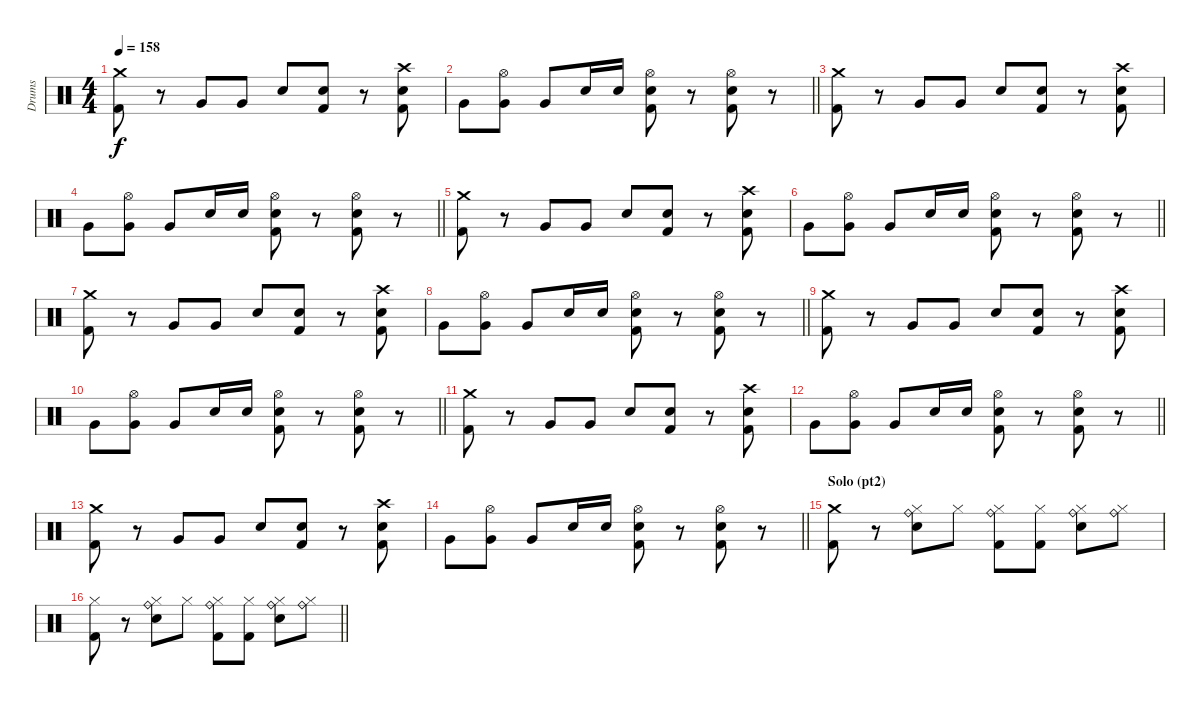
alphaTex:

\track ("Drums" "Drums") {instrument percussion}
\staff
\articulation defaults
\ts (4 4)
\tempo 158
\clef neutral
\ks c
("Crash medium (hit)" "Kick (hit) 2").8{dy f} r.8 "Very Low Tom (hit)".8 "Very Low Tom (hit)".8 "Electric Snare (hit)".8 ("Electric Snare (hit)" "Kick (hit) 2").8 r.8 ("Crash high (hit)" "Electric Snare (hit)" "Kick (hit) 2").8 |
\barLineRight lightlight "Very Low Tom (hit)".8
("Hi-Hat (open)" "Very Low Tom (hit)").8 "Very Low Tom (hit)".8 "Electric Snare (hit)".16 "Electric Snare (hit)".16 ("Hi-Hat (open)" "Electric Snare (hit)" "Kick (hit) 2").8 r.8 ("Hi-Hat (open)" "Electric Snare (hit)" "Kick (hit) 2").8 r.8 |
("Crash medium (hit)" "Kick (hit) 2").8 r.8 "Very Low Tom (hit)".8 "Very Low Tom (hit)".8 "Electric Snare (hit)".8 ("Electric Snare (hit)" "Kick (hit) 2").8 r.8 ("Crash high (hit)" "Electric Snare (hit)" "Kick (hit) 2").8 |
\barLineRight lightlight "Very Low Tom (hit)".8
("Hi-Hat (open)" "Very Low Tom (hit)").8 "Very Low Tom (hit)".8 "Electric Snare (hit)".16 "Electric Snare (hit)".16 ("Hi-Hat (open)" "Electric Snare (hit)" "Kick (hit) 2").8 r.8 ("Hi-Hat (open)" "Electric Snare (hit)" "Kick (hit) 2").8 r.8 |
("Crash medium (hit)" "Kick (hit) 2").8 r.8 "Very Low Tom (hit)".8 "Very Low Tom (hit)".8 "Electric Snare (hit)".8 ("Electric Snare (hit)" "Kick (hit) 2").8 r.8 ("Crash high (hit)" "Electric Snare (hit)" "Kick (hit) 2").8 |
\barLineRight lightlight "Very Low Tom (hit)".8
("Hi-Hat (open)" "Very Low Tom (hit)").8 "Very Low Tom (hit)".8 "Electric Snare (hit)".16 "Electric Snare (hit)".16 ("Hi-Hat (open)" "Electric Snare (hit)" "Kick (hit) 2").8 r.8 ("Hi-Hat (open)" "Electric Snare (hit)" "Kick (hit) 2").8 r.8 |
("Crash medium (hit)" "Kick (hit) 2").8 r.8 "Very Low Tom (hit)".8 "Very Low Tom (hit)".8 "Electric Snare (hit)".8 ("Electric Snare (hit)" "Kick (hit) 2").8 r.8 ("Crash high (hit)" "Electric Snare (hit)" "Kick (hit) 2").8 |
\barLineRight lightlight "Very Low Tom (hit)".8
("Hi-Hat (open)" "Very Low Tom (hit)").8 "Very Low Tom (hit)".8 "Electric Snare (hit)".16 "Electric Snare (hit)".16 ("Hi-Hat (open)" "Electric Snare (hit)" "Kick (hit) 2").8 r.8 ("Hi-Hat (open)" "Electric Snare (hit)" "Kick (hit) 2").8 r.8 |
("Crash medium (hit)" "Kick (hit) 2").8 r.8 "Very Low Tom (hit)".8 "Very Low Tom (hit)".8 "Electric Snare (hit)".8 ("Electric Snare (hit)" "Kick (hit) 2").8 r.8 ("Crash high (hit)" "Electric Snare (hit)" "Kick (hit) 2").8 |
\barLineRight lightlight "Very Low Tom (hit)".8
("Hi-Hat (open)" "Very Low Tom (hit)").8 "Very Low Tom (hit)".8 "Electric Snare (hit)".16 "Electric Snare (hit)".16 ("Hi-Hat (open)" "Electric Snare (hit)" "Kick (hit) 2").8 r.8 ("Hi-Hat (open)" "Electric Snare (hit)" "Kick (hit) 2").8 r.8 |
("Crash medium (hit)" "Kick (hit) 2").8 r.8 "Very Low Tom (hit)".8 "Very Low Tom (hit)".8 "Electric Snare (hit)".8 ("Electric Snare (hit)" "Kick (hit) 2").8 r.8 ("Crash high (hit)" "Electric Snare (hit)" "Kick (hit) 2").8 |
\barLineRight lightlight "Very Low Tom (hit)".8
("Hi-Hat (open)" "Very Low Tom (hit)").8 "Very Low Tom (hit)".8 "Electric Snare (hit)".16 "Electric Snare (hit)".16 ("Hi-Hat (open)" "Electric Snare (hit)" "Kick (hit) 2").8 r.8 ("Hi-Hat (open)" "Electric Snare (hit)" "Kick (hit) 2").8 r.8 |
("Crash medium (hit)" "Kick (hit) 2").8 r.8 "Very Low Tom (hit)".8 "Very Low Tom (hit)".8 "Electric Snare (hit)".8 ("Electric Snare (hit)" "Kick (hit) 2").8 r.8 ("Crash high (hit)" "Electric Snare (hit)" "Kick (hit) 2").8 |
\barLineRight lightlight "Very Low Tom (hit)".8
("Hi-Hat (open)" "Very Low Tom (hit)").8 "Very Low Tom (hit)".8 "Electric Snare (hit)".16 "Electric Snare (hit)".16 ("Hi-Hat (open)" "Electric Snare (hit)" "Kick (hit) 2").8 r.8 ("Hi-Hat (open)" "Electric Snare (hit)" "Kick (hit) 2").8 r.8 |
\section ("" "Solo (pt2)")
("Crash medium (hit)" "Kick (hit) 2").8 r.8 ("Hi-Hat (closed)" "Ride (bell)" "Electric Snare (hit)").8 "Hi-Hat (closed)".8 ("Hi-Hat (closed)" "Ride (bell)" "Kick (hit) 2").8 ("Hi-Hat (closed)" "Kick (hit) 2").8 ("Hi-Hat (closed)" "Ride (bell)" "Electric Snare (hit)").8 ("Hi-Hat (closed)" "Ride (bell)").8 |
\barLineRight lightlight
("Hi-Hat (closed)" "Kick (hit) 2").8 r.8 ("Hi-Hat (closed)" "Ride (bell)" "Electric Snare (hit)").8 "Hi-Hat (closed)".8 ("Hi-Hat (closed)" "Ride (bell)" "Kick (hit) 2").8 ("Hi-Hat (closed)" "Kick (hit) 2").8 ("Hi-Hat (closed)" "Ride (bell)" "Electric Snare (hit)").8 ("Hi-Hat (closed)" "Ride (bell)").8
